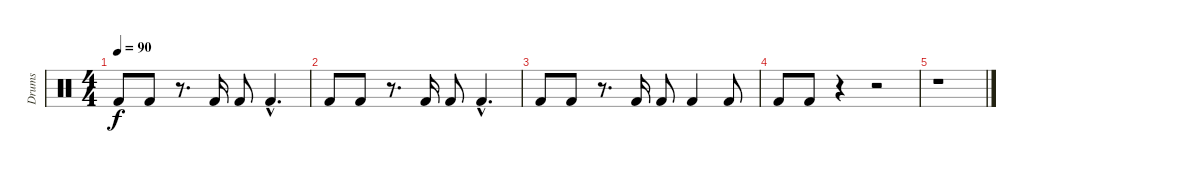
\track ("Drums" "Drums") {instrument percussion}
\staff {score}
\articulation defaults
\ts (4 4)
\tempo 90
\clef neutral
\ks c "Kick (hit) 2".8{dy f} "Kick (hit) 2".8
r.8{d} "Kick (hit) 2".16 "Kick (hit) 2".8 "Kick (hit) 2"{hac}.4{d} |
"Kick (hit) 2".8 "Kick (hit) 2".8 r.8{d} "Kick (hit) 2".16 "Kick (hit) 2".8 "Kick (hit) 2"{hac}.4{d} |
"Kick (hit) 2".8 "Kick (hit) 2".8 r.8{d} "Kick (hit) 2".16 "Kick (hit) 2".8 "Kick (hit) 2".4 "Kick (hit) 2".8 |
"Kick (hit) 2".8 "Kick (hit) 2".8 r.4 r.2 |
r.1
